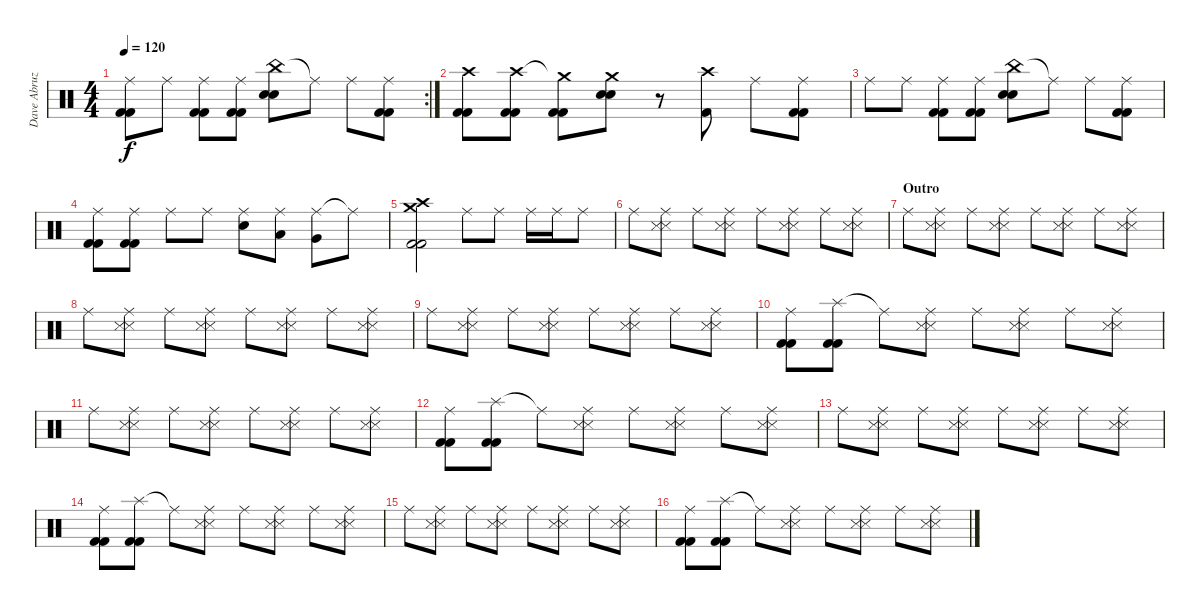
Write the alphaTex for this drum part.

\track ("Dave Abruzzese" "Dave Abruz") {instrument percussion}
\staff {score}
\articulation defaults
\rc 2
\ts (4 4)
\tempo 120
\clef neutral
\ks c
("Ride (middle)" "Kick (hit) 2" "Kick (hit) 2").8{dy f} "Ride (middle)".8 ("Ride (middle)" "Kick (hit) 2" "Kick (hit) 2").8 ("Ride (middle)" "Kick (hit) 2" "Kick (hit) 2").8 ("China (hit)" "Electric Snare (hit)" "Electric Snare (hit)").8 "Ride (middle)"{t}.8 "Ride (middle)".8 ("Ride (middle)" "Kick (hit) 2" "Kick (hit) 2").8 |
("Crash high (hit)" "Kick (hit) 2" "Kick (hit) 2").8 ("Crash high (hit)" "Kick (hit) 2" "Kick (hit) 2").8 ("Crash medium (hit)"{t} "Kick (hit) 2" "Kick (hit) 2").8 ("Crash medium (hit)" "Electric Snare (hit)" "Electric Snare (hit)").8 r.8 ("Crash high (hit)" "Kick (hit) 2").8 "Ride (middle)".8 ("Ride (middle)" "Kick (hit) 2" "Kick (hit) 2").8 |
"Ride (middle)".8 "Ride (middle)".8 ("Ride (middle)" "Kick (hit) 2" "Kick (hit) 2").8 ("Ride (middle)" "Kick (hit) 2" "Kick (hit) 2").8 ("China (hit)" "Electric Snare (hit)" "Electric Snare (hit)").8 "Ride (middle)"{t}.8 "Ride (middle)".8 ("Ride (middle)" "Kick (hit) 2" "Kick (hit) 2").8 |
("Ride (middle)" "Kick (hit) 2" "Kick (hit) 2").8 ("Ride (middle)" "Kick (hit) 2" "Kick (hit) 2").8 "Ride (middle)".8 "Ride (middle)".8 ("Ride (middle)" "Electric Snare (hit)").8 ("Ride (middle)" "Low Tom (hit)").8 ("Ride (middle)" "Very Low Tom (hit)").8 "Ride (middle)"{t}.8 |
("Crash high (hit)" "Crash medium (hit)" "Kick (hit) 2" "Kick (hit) 2").2 "Ride (middle)".8 "Ride (middle)".8 "Ride (middle)".16 "Ride (middle)".16 "Ride (middle)".8 |
"Ride (middle)".8 ("Ride (middle)" "Snare (side stick) 3" "Snare (side stick) 3").8 "Ride (middle)".8 ("Ride (middle)" "Snare (side stick) 3" "Snare (side stick) 3").8 "Ride (middle)".8 ("Ride (middle)" "Snare (side stick) 3" "Snare (side stick) 3").8 "Ride (middle)".8 ("Ride (middle)" "Snare (side stick) 3" "Snare (side stick) 3").8 |
\section ("" "Outro")
"Ride (middle)".8 ("Ride (middle)" "Snare (side stick) 3" "Snare (side stick) 3").8 "Ride (middle)".8 ("Ride (middle)" "Snare (side stick) 3" "Snare (side stick) 3").8 "Ride (middle)".8 ("Ride (middle)" "Snare (side stick) 3" "Snare (side stick) 3").8 "Ride (middle)".8 ("Ride (middle)" "Snare (side stick) 3" "Snare (side stick) 3").8 |
"Ride (middle)".8 ("Ride (middle)" "Snare (side stick) 3" "Snare (side stick) 3").8 "Ride (middle)".8 ("Ride (middle)" "Snare (side stick) 3" "Snare (side stick) 3").8 "Ride (middle)".8 ("Ride (middle)" "Snare (side stick) 3" "Snare (side stick) 3").8 "Ride (middle)".8 ("Ride (middle)" "Snare (side stick) 3" "Snare (side stick) 3").8 |
"Ride (middle)".8 ("Ride (middle)" "Snare (side stick) 3" "Snare (side stick) 3").8 "Ride (middle)".8 ("Ride (middle)" "Snare (side stick) 3" "Snare (side stick) 3").8 "Ride (middle)".8 ("Ride (middle)" "Snare (side stick) 3" "Snare (side stick) 3").8 "Ride (middle)".8 ("Ride (middle)" "Snare (side stick) 3" "Snare (side stick) 3").8 |
("Ride (middle)" "Kick (hit) 2" "Kick (hit) 2").8 ("Splash (hit)" "Kick (hit) 2" "Kick (hit) 2").8 "Ride (middle)"{t}.8 ("Ride (middle)" "Snare (side stick) 3" "Snare (side stick) 3").8 "Ride (middle)".8 ("Ride (middle)" "Snare (side stick) 3" "Snare (side stick) 3").8 "Ride (middle)".8 ("Ride (middle)" "Snare (side stick) 3" "Snare (side stick) 3").8 |
"Ride (middle)".8 ("Ride (middle)" "Snare (side stick) 3" "Snare (side stick) 3").8 "Ride (middle)".8 ("Ride (middle)" "Snare (side stick) 3" "Snare (side stick) 3").8 "Ride (middle)".8 ("Ride (middle)" "Snare (side stick) 3" "Snare (side stick) 3").8 "Ride (middle)".8 ("Ride (middle)" "Snare (side stick) 3" "Snare (side stick) 3").8 |
("Ride (middle)" "Kick (hit) 2" "Kick (hit) 2").8 ("Splash (hit)" "Kick (hit) 2" "Kick (hit) 2").8 "Ride (middle)"{t}.8 ("Ride (middle)" "Snare (side stick) 3" "Snare (side stick) 3").8 "Ride (middle)".8 ("Ride (middle)" "Snare (side stick) 3" "Snare (side stick) 3").8 "Ride (middle)".8 ("Ride (middle)" "Snare (side stick) 3" "Snare (side stick) 3").8 |
"Ride (middle)".8 ("Ride (middle)" "Snare (side stick) 3" "Snare (side stick) 3").8 "Ride (middle)".8 ("Ride (middle)" "Snare (side stick) 3" "Snare (side stick) 3").8 "Ride (middle)".8 ("Ride (middle)" "Snare (side stick) 3" "Snare (side stick) 3").8 "Ride (middle)".8 ("Ride (middle)" "Snare (side stick) 3" "Snare (side stick) 3").8 |
("Ride (middle)" "Kick (hit) 2" "Kick (hit) 2").8 ("Splash (hit)" "Kick (hit) 2" "Kick (hit) 2").8 "Ride (middle)"{t}.8 ("Ride (middle)" "Snare (side stick) 3" "Snare (side stick) 3").8 "Ride (middle)".8 ("Ride (middle)" "Snare (side stick) 3" "Snare (side stick) 3").8 "Ride (middle)".8 ("Ride (middle)" "Snare (side stick) 3" "Snare (side stick) 3").8 |
"Ride (middle)".8 ("Ride (middle)" "Snare (side stick) 3" "Snare (side stick) 3").8 "Ride (middle)".8 ("Ride (middle)" "Snare (side stick) 3" "Snare (side stick) 3").8 "Ride (middle)".8 ("Ride (middle)" "Snare (side stick) 3" "Snare (side stick) 3").8 "Ride (middle)".8 ("Ride (middle)" "Snare (side stick) 3" "Snare (side stick) 3").8 |
("Ride (middle)" "Kick (hit) 2" "Kick (hit) 2").8 ("Splash (hit)" "Kick (hit) 2" "Kick (hit) 2").8 "Ride (middle)"{t}.8 ("Ride (middle)" "Snare (side stick) 3" "Snare (side stick) 3").8 "Ride (middle)".8 ("Ride (middle)" "Snare (side stick) 3" "Snare (side stick) 3").8 "Ride (middle)".8 ("Ride (middle)" "Snare (side stick) 3" "Snare (side stick) 3").8
